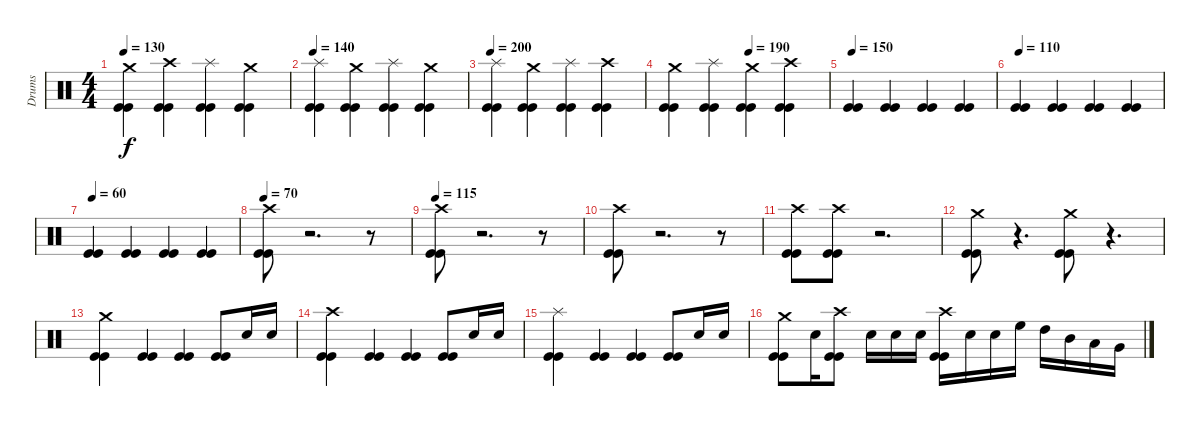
\track ("Drums" "Drums") {instrument percussion}
\staff {score}
\articulation defaults
\ts (4 4)
\tempo 130
\clef neutral
\ks c
("Kick (hit)" "Kick (hit)" "Crash medium (hit)").4{dy f} ("Kick (hit)" "Kick (hit)" "Crash high (hit)").4 ("Kick (hit)" "Kick (hit)" "Splash (hit)").4 ("Kick (hit)" "Kick (hit)" "Crash medium (hit)").4 |
\tempo 140
("Kick (hit)" "Kick (hit)" "Splash (hit)").4 ("Kick (hit)" "Kick (hit)" "Crash medium (hit)").4 ("Kick (hit)" "Kick (hit)" "Splash (hit)").4 ("Kick (hit)" "Kick (hit)" "Crash medium (hit)").4 |
\tempo 200
("Kick (hit)" "Kick (hit)" "Splash (hit)").4 ("Kick (hit)" "Kick (hit)" "Crash medium (hit)").4 ("Kick (hit)" "Kick (hit)" "Splash (hit)").4 ("Kick (hit)" "Kick (hit)" "Crash high (hit)").4 |
\tempo (70 0.5)
\tempo (190 0.5)
("Kick (hit)" "Kick (hit)" "Crash medium (hit)").4 ("Kick (hit)" "Kick (hit)" "Splash (hit)").4 ("Kick (hit)" "Kick (hit)" "Crash medium (hit)").4 ("Kick (hit)" "Kick (hit)" "Crash high (hit)").4 |
\tempo 150
("Kick (hit)" "Kick (hit)").4 ("Kick (hit)" "Kick (hit)").4 ("Kick (hit)" "Kick (hit)").4 ("Kick (hit)" "Kick (hit)").4 |
\tempo 110
("Kick (hit)" "Kick (hit)").4 ("Kick (hit)" "Kick (hit)").4 ("Kick (hit)" "Kick (hit)").4 ("Kick (hit)" "Kick (hit)").4 |
\tempo 60
("Kick (hit)" "Kick (hit)").4 ("Kick (hit)" "Kick (hit)").4 ("Kick (hit)" "Kick (hit)").4 ("Kick (hit)" "Kick (hit)").4 |
\tempo 70
("Kick (hit)" "Kick (hit)" "Crash high (hit)").8 r.2{d} r.8 |
\tempo 115
("Kick (hit)" "Kick (hit)" "Crash high (hit)").8 r.2{d} r.8 |
("Kick (hit)" "Kick (hit)" "Crash high (hit)").8 r.2{d} r.8 |
("Kick (hit)" "Kick (hit)" "Crash high (hit)").8 ("Kick (hit)" "Kick (hit)" "Crash high (hit)").8 r.2{d} |
("Kick (hit)" "Kick (hit)" "Crash medium (hit)").8 r.4{d} ("Kick (hit)" "Kick (hit)" "Crash medium (hit)").8 r.4{d} |
("Kick (hit)" "Kick (hit)" "Crash medium (hit)").4 ("Kick (hit)" "Kick (hit)").4 ("Kick (hit)" "Kick (hit)").4 ("Kick (hit)" "Kick (hit)").8 "Snare (hit) 2".16 "Snare (hit) 2".16 |
("Kick (hit)" "Kick (hit)" "Crash high (hit)").4 ("Kick (hit)" "Kick (hit)").4 ("Kick (hit)" "Kick (hit)").4 ("Kick (hit)" "Kick (hit)").8 "Snare (hit) 2".16 "Snare (hit) 2".16 |
("Kick (hit)" "Kick (hit)" "Splash (hit)").4 ("Kick (hit)" "Kick (hit)").4 ("Kick (hit)" "Kick (hit)").4 ("Kick (hit)" "Kick (hit)").8 "Snare (hit) 2".16 "Snare (hit) 2".16 |
("Kick (hit)" "Kick (hit)" "Crash medium (hit)").8 "Snare (hit) 2".16 ("Kick (hit)" "Kick (hit)" "Crash high (hit)").8 "Snare (hit) 2".16 "Snare (hit) 2".16 "Snare (hit) 2".16 ("Kick (hit)" "Kick (hit)" "Crash high (hit)").16 "Snare (hit) 2".16 "Snare (hit) 2".16 "High Floor Tom (hit)".16 "High Tom (hit)".16 "Mid Tom (hit)".16 "Low Tom (hit)".16 "Very Low Tom (hit)".16
